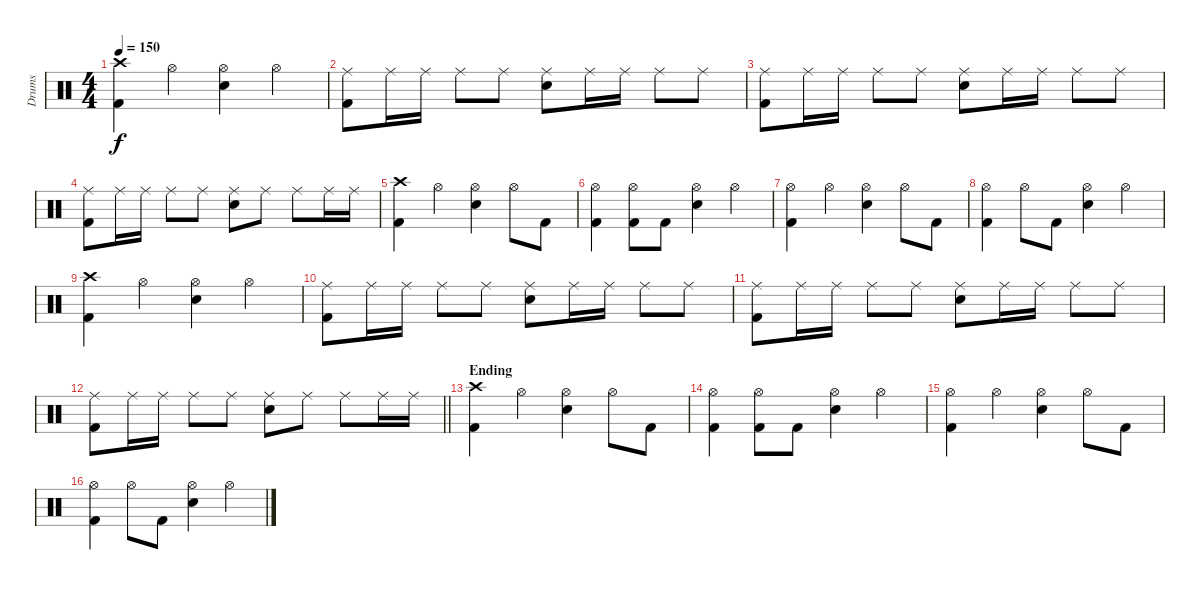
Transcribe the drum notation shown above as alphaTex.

\track ("Drums" "Drums") {instrument percussion}
\staff {score}
\articulation defaults
\ts (4 4)
\tempo 150
\clef neutral
\ks c
("Crash high (hit)" "Kick (hit) 2").4{dy f} "Hi-Hat (open)".4 ("Hi-Hat (open)" "Electric Snare (hit)").4 "Hi-Hat (open)".4 |
("Ride (middle)" "Kick (hit) 2").8 "Ride (middle)".16 "Ride (middle)".16 "Ride (middle)".8 "Ride (middle)".8 ("Ride (middle)" "Electric Snare (hit)").8 "Ride (middle)".16 "Ride (middle)".16 "Ride (middle)".8 "Ride (middle)".8 |
("Ride (middle)" "Kick (hit) 2").8 "Ride (middle)".16 "Ride (middle)".16 "Ride (middle)".8 "Ride (middle)".8 ("Ride (middle)" "Electric Snare (hit)").8 "Ride (middle)".16 "Ride (middle)".16 "Ride (middle)".8 "Ride (middle)".8 |
("Ride (middle)" "Kick (hit) 2").8 "Ride (middle)".16 "Ride (middle)".16 "Ride (middle)".8 "Ride (middle)".8 ("Ride (middle)" "Electric Snare (hit)").8 "Ride (middle)".8 "Ride (middle)".8 "Ride (middle)".16 "Ride (middle)".16 |
("Crash high (hit)" "Kick (hit) 2").4 "Hi-Hat (open)".4 ("Hi-Hat (open)" "Electric Snare (hit)").4 "Hi-Hat (open)".8 "Kick (hit) 2".8 |
("Hi-Hat (open)" "Kick (hit) 2").4 ("Hi-Hat (open)" "Kick (hit) 2").8 "Kick (hit) 2".8 ("Hi-Hat (open)" "Electric Snare (hit)").4 "Hi-Hat (open)".4 |
("Hi-Hat (open)" "Kick (hit) 2").4 "Hi-Hat (open)".4 ("Hi-Hat (open)" "Electric Snare (hit)").4 "Hi-Hat (open)".8 "Kick (hit) 2".8 |
("Hi-Hat (open)" "Kick (hit) 2").4 "Hi-Hat (open)".8 "Kick (hit) 2".8 ("Hi-Hat (open)" "Electric Snare (hit)").4 "Hi-Hat (open)".4 |
("Crash high (hit)" "Kick (hit) 2").4 "Hi-Hat (open)".4 ("Hi-Hat (open)" "Electric Snare (hit)").4 "Hi-Hat (open)".4 |
("Ride (middle)" "Kick (hit) 2").8 "Ride (middle)".16 "Ride (middle)".16 "Ride (middle)".8 "Ride (middle)".8 ("Ride (middle)" "Electric Snare (hit)").8 "Ride (middle)".16 "Ride (middle)".16 "Ride (middle)".8 "Ride (middle)".8 |
("Ride (middle)" "Kick (hit) 2").8 "Ride (middle)".16 "Ride (middle)".16 "Ride (middle)".8 "Ride (middle)".8 ("Ride (middle)" "Electric Snare (hit)").8 "Ride (middle)".16 "Ride (middle)".16 "Ride (middle)".8 "Ride (middle)".8 |
\barLineRight lightlight
("Ride (middle)" "Kick (hit) 2").8 "Ride (middle)".16 "Ride (middle)".16 "Ride (middle)".8 "Ride (middle)".8 ("Ride (middle)" "Electric Snare (hit)").8 "Ride (middle)".8 "Ride (middle)".8 "Ride (middle)".16 "Ride (middle)".16 |
\section ("" "Ending")
("Crash high (hit)" "Kick (hit) 2").4 "Hi-Hat (open)".4 ("Hi-Hat (open)" "Electric Snare (hit)").4 "Hi-Hat (open)".8 "Kick (hit) 2".8 |
("Hi-Hat (open)" "Kick (hit) 2").4 ("Hi-Hat (open)" "Kick (hit) 2").8 "Kick (hit) 2".8 ("Hi-Hat (open)" "Electric Snare (hit)").4 "Hi-Hat (open)".4 |
("Hi-Hat (open)" "Kick (hit) 2").4 "Hi-Hat (open)".4 ("Hi-Hat (open)" "Electric Snare (hit)").4 "Hi-Hat (open)".8 "Kick (hit) 2".8 |
("Hi-Hat (open)" "Kick (hit) 2").4 "Hi-Hat (open)".8 "Kick (hit) 2".8 ("Hi-Hat (open)" "Electric Snare (hit)").4 "Hi-Hat (open)".4
